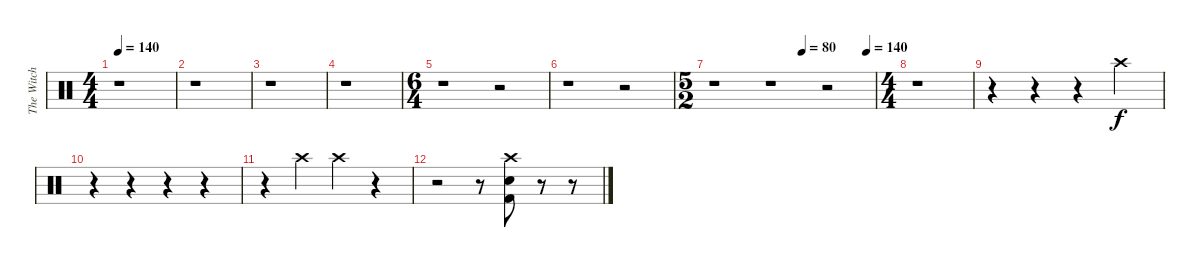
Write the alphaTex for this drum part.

\track ("The Witch" "The Witch") {instrument percussion}
\staff {score}
\articulation defaults
\ts (4 4)
\tempo 140
\clef neutral
\ks c
r.1{dy f} |
r.1 |
r.1 |
r.1 |
\ts (6 4)
r.1 r.2 |
r.1 r.2 |
\ts (5 2)
\tempo (80 0.55)
\tempo (140 0.95)
r.1 r.1 r.2 |
\ts (4 4)
r.1 |
r.4 r.4 r.4 "Crash high (hit)".4 |
r.4 r.4 r.4 r.4 |
r.4 "Crash high (hit)".4 "Crash high (hit)".4 r.4 |
r.2 r.8 ("Crash high (hit)" "Electric Snare (hit)" "Kick (hit) 2").8 r.8 r.8
